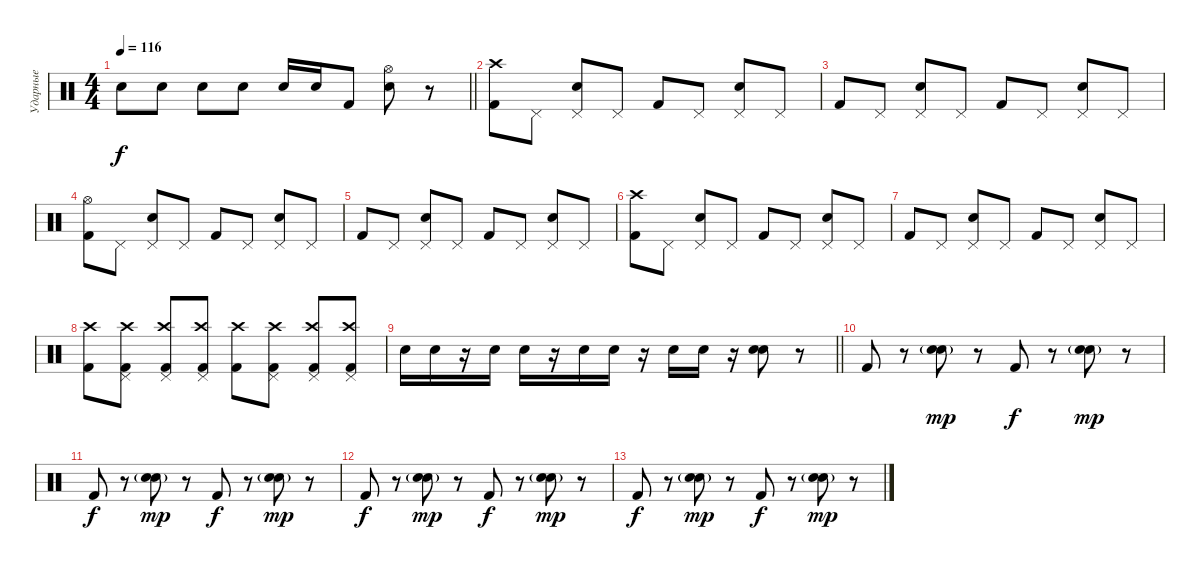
\track ("Ударные" "Ударные") {instrument percussion}
\staff {score}
\articulation defaults
\ts (4 4)
\tempo 116
\clef neutral
\barLineRight lightlight
\ks c "Snare (hit) 2".8{dy f} "Snare (hit) 2".8 "Snare (hit) 2".8 "Snare (hit) 2".8 "Snare (hit) 2".16 "Snare (hit) 2".16 "Kick (hit) 2".8
("Hi-Hat (open)" "Snare (hit) 2").8 r.8 |
("Crash high (hit)" "Kick (hit) 2").8 "Pedal Hi-Hat (hit)".8 ("Pedal Hi-Hat (hit)" "Snare (hit) 2").8 "Pedal Hi-Hat (hit)".8 "Kick (hit) 2".8 "Pedal Hi-Hat (hit)".8 ("Pedal Hi-Hat (hit)" "Snare (hit) 2").8 "Pedal Hi-Hat (hit)".8 |
"Kick (hit) 2".8 "Pedal Hi-Hat (hit)".8 ("Pedal Hi-Hat (hit)" "Snare (hit) 2").8 "Pedal Hi-Hat (hit)".8 "Kick (hit) 2".8 "Pedal Hi-Hat (hit)".8 ("Pedal Hi-Hat (hit)" "Snare (hit) 2").8 "Pedal Hi-Hat (hit)".8 |
("Hi-Hat (open)" "Kick (hit) 2").8 "Pedal Hi-Hat (hit)".8 ("Pedal Hi-Hat (hit)" "Snare (hit) 2").8 "Pedal Hi-Hat (hit)".8 "Kick (hit) 2".8 "Pedal Hi-Hat (hit)".8 ("Pedal Hi-Hat (hit)" "Snare (hit) 2").8 "Pedal Hi-Hat (hit)".8 |
"Kick (hit) 2".8 "Pedal Hi-Hat (hit)".8 ("Pedal Hi-Hat (hit)" "Snare (hit) 2").8 "Pedal Hi-Hat (hit)".8 "Kick (hit) 2".8 "Pedal Hi-Hat (hit)".8 ("Pedal Hi-Hat (hit)" "Snare (hit) 2").8 "Pedal Hi-Hat (hit)".8 |
("Crash high (hit)" "Kick (hit) 2").8 "Pedal Hi-Hat (hit)".8 ("Pedal Hi-Hat (hit)" "Snare (hit) 2").8 "Pedal Hi-Hat (hit)".8 "Kick (hit) 2".8 "Pedal Hi-Hat (hit)".8 ("Pedal Hi-Hat (hit)" "Snare (hit) 2").8 "Pedal Hi-Hat (hit)".8 |
"Kick (hit) 2".8 "Pedal Hi-Hat (hit)".8 ("Pedal Hi-Hat (hit)" "Snare (hit) 2").8 "Pedal Hi-Hat (hit)".8 "Kick (hit) 2".8 "Pedal Hi-Hat (hit)".8 ("Pedal Hi-Hat (hit)" "Snare (hit) 2").8 "Pedal Hi-Hat (hit)".8 |
("Crash high (hit)" "Kick (hit) 2").8 ("Crash high (hit)" "Pedal Hi-Hat (hit)" "Kick (hit) 2").8 ("Crash high (hit)" "Pedal Hi-Hat (hit)" "Kick (hit) 2").8 ("Crash high (hit)" "Pedal Hi-Hat (hit)" "Kick (hit) 2").8 ("Crash high (hit)" "Kick (hit) 2").8 ("Crash high (hit)" "Pedal Hi-Hat (hit)" "Kick (hit) 2").8 ("Crash high (hit)" "Pedal Hi-Hat (hit)" "Kick (hit) 2").8 ("Crash high (hit)" "Pedal Hi-Hat (hit)" "Kick (hit) 2").8 |
\barLineRight lightlight "Snare (hit) 2".16 "Snare (hit) 2".16
r.16 "Snare (hit) 2".16 "Snare (hit) 2".16 r.16 "Snare (hit) 2".16 "Snare (hit) 2".16 r.16 "Snare (hit) 2".16 "Snare (hit) 2".16 r.16 ("Hand Clap (hit)" "Snare (hit) 2").8 r.8 |
"Kick (hit) 2".8 r.8 ("Hand Clap (hit)"{g} "Snare (hit) 2").8{dy mp} r.8 "Kick (hit) 2".8{dy f} r.8 ("Hand Clap (hit)"{g} "Snare (hit) 2").8{dy mp} r.8 |
"Kick (hit) 2".8{dy f} r.8 ("Hand Clap (hit)"{g} "Snare (hit) 2").8{dy mp} r.8 "Kick (hit) 2".8{dy f} r.8 ("Hand Clap (hit)"{g} "Snare (hit) 2").8{dy mp} r.8 |
"Kick (hit) 2".8{dy f} r.8 ("Hand Clap (hit)"{g} "Snare (hit) 2").8{dy mp} r.8 "Kick (hit) 2".8{dy f} r.8 ("Hand Clap (hit)"{g} "Snare (hit) 2").8{dy mp} r.8 |
"Kick (hit) 2".8{dy f} r.8 ("Hand Clap (hit)"{g} "Snare (hit) 2").8{dy mp} r.8 "Kick (hit) 2".8{dy f} r.8 ("Hand Clap (hit)"{g} "Snare (hit) 2").8{dy mp} r.8
